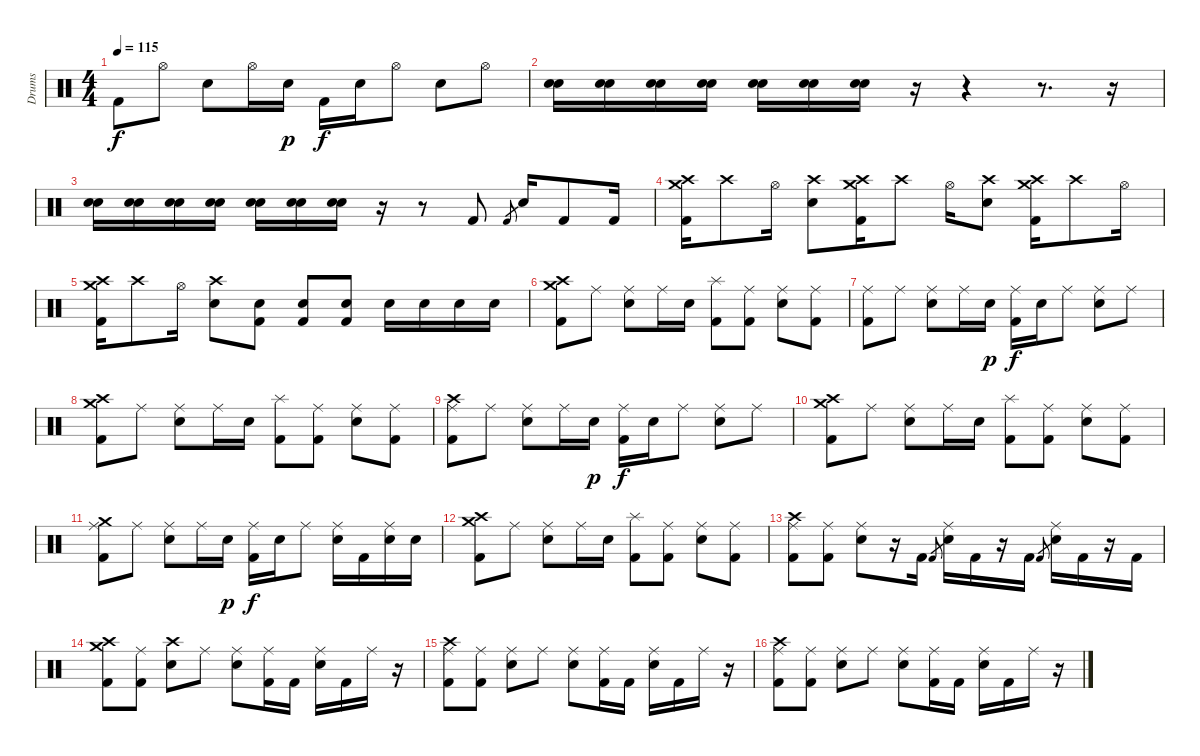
\track ("Drums" "Drums") {instrument percussion}
\staff {score}
\articulation defaults
\ts (4 4)
\tempo 115
\clef neutral
\ks c "Kick (hit) 2".8{dy f} "Hi-Hat (open)".8 "Snare (hit) 2".8 "Hi-Hat (open)".16 "Snare (hit) 2".16{dy p} "Kick (hit) 2".16{dy f} "Snare (hit) 2".16 "Hi-Hat (open)".8 "Snare (hit) 2".8 "Hi-Hat (open)".8
|
("Snare (hit) 2" "Electric Snare (hit)").16 ("Snare (hit) 2" "Electric Snare (hit)").16 ("Snare (hit) 2" "Electric Snare (hit)").16 ("Snare (hit) 2" "Electric Snare (hit)").16 ("Snare (hit) 2" "Electric Snare (hit)").16 ("Snare (hit) 2" "Electric Snare (hit)").16 ("Snare (hit) 2" "Electric Snare (hit)").16 r.16 r.4 r.8{d} r.16 |
("Snare (hit) 2" "Electric Snare (hit)").16 ("Snare (hit) 2" "Electric Snare (hit)").16 ("Snare (hit) 2" "Electric Snare (hit)").16 ("Snare (hit) 2" "Electric Snare (hit)").16 ("Snare (hit) 2" "Electric Snare (hit)").16 ("Snare (hit) 2" "Electric Snare (hit)").16 ("Snare (hit) 2" "Electric Snare (hit)").16 r.16 r.8 "Kick (hit) 2".8 "Kick (hit) 2".8{gr} "Snare (hit) 2".16 "Kick (hit) 2".8 "Kick (hit) 2".16 |
("Crash medium (hit)" "Kick (hit) 2" "Crash high (hit)").16 "Crash high (hit)".8 "Hi-Hat (open)".16 ("Crash high (hit)" "Snare (hit) 2").8 ("Crash medium (hit)" "Kick (hit) 2" "Crash high (hit)").16 "Crash high (hit)".8 "Hi-Hat (open)".16 ("Crash high (hit)" "Snare (hit) 2").8 ("Crash medium (hit)" "Kick (hit) 2" "Crash high (hit)").16 "Crash high (hit)".8 "Hi-Hat (open)".16 |
("Crash medium (hit)" "Kick (hit) 2" "Crash high (hit)").16 "Crash high (hit)".8 "Hi-Hat (open)".16 ("Crash high (hit)" "Snare (hit) 2").8 ("Snare (hit) 2" "Kick (hit) 2").8 ("Snare (hit) 2" "Kick (hit) 2").8 ("Snare (hit) 2" "Kick (hit) 2").8 "Snare (hit) 2".16 "Snare (hit) 2".16 "Snare (hit) 2".16 "Snare (hit) 2".16 |
("Crash medium (hit)" "Kick (hit) 2" "Crash high (hit)").8 "Ride (middle)".8 ("Ride (middle)" "Snare (hit) 2").8 "Ride (middle)".16 "Snare (hit) 2".16 ("Splash (hit)" "Kick (hit) 2").8 ("Ride (middle)" "Kick (hit) 2").8 ("Ride (middle)" "Snare (hit) 2").8 ("Ride (middle)" "Kick (hit) 2").8 |
("Ride (middle)" "Kick (hit) 2").8 "Ride (middle)".8 ("Ride (middle)" "Snare (hit) 2").8 "Ride (middle)".16 "Snare (hit) 2".16{dy p} ("Ride (middle)" "Kick (hit) 2").16{dy f} "Snare (hit) 2".16 "Ride (middle)".8 ("Ride (middle)" "Snare (hit) 2").8 "Ride (middle)".8 |
("Crash medium (hit)" "Kick (hit) 2" "Crash high (hit)").8 "Ride (middle)".8 ("Ride (middle)" "Snare (hit) 2").8 "Ride (middle)".16 "Snare (hit) 2".16 ("Splash (hit)" "Kick (hit) 2").8 ("Ride (middle)" "Kick (hit) 2").8 ("Ride (middle)" "Snare (hit) 2").8 ("Ride (middle)" "Kick (hit) 2").8 |
("Ride (middle)" "Kick (hit) 2" "Crash high (hit)").8 "Ride (middle)".8 ("Ride (middle)" "Snare (hit) 2").8 "Ride (middle)".16 "Snare (hit) 2".16{dy p} ("Ride (middle)" "Kick (hit) 2").16{dy f} "Snare (hit) 2".16 "Ride (middle)".8 ("Ride (middle)" "Snare (hit) 2").8 "Ride (middle)".8 |
("Crash medium (hit)" "Kick (hit) 2" "Crash high (hit)").8 "Ride (middle)".8 ("Ride (middle)" "Snare (hit) 2").8 "Ride (middle)".16 "Snare (hit) 2".16 ("Splash (hit)" "Kick (hit) 2").8 ("Ride (middle)" "Kick (hit) 2").8 ("Ride (middle)" "Snare (hit) 2").8 ("Ride (middle)" "Kick (hit) 2").8 |
("Ride (middle)" "Kick (hit) 2" "Crash medium (hit)").8 "Ride (middle)".8 ("Ride (middle)" "Snare (hit) 2").8 "Ride (middle)".16 "Snare (hit) 2".16{dy p} ("Ride (middle)" "Kick (hit) 2").16{dy f} "Snare (hit) 2".16 "Ride (middle)".8 ("Ride (middle)" "Snare (hit) 2").16 "Kick (hit) 2".16 ("Ride (middle)" "Snare (hit) 2").16 "Snare (hit) 2".16 |
("Crash medium (hit)" "Kick (hit) 2" "Crash high (hit)").8 "Ride (middle)".8 ("Ride (middle)" "Snare (hit) 2").8 "Ride (middle)".16 "Snare (hit) 2".16 ("Splash (hit)" "Kick (hit) 2").8 ("Ride (middle)" "Kick (hit) 2").8 ("Ride (middle)" "Snare (hit) 2").8 ("Ride (middle)" "Kick (hit) 2").8 |
("Ride (middle)" "Kick (hit) 2" "Crash high (hit)").8 ("Ride (middle)" "Kick (hit) 2").8 ("Ride (middle)" "Snare (hit) 2").8 r.16 "Kick (hit) 2".16 "Kick (hit) 2".8{gr} ("Ride (middle)" "Electric Snare (hit)").16 "Kick (hit) 2".16 r.16 "Kick (hit) 2".16 "Kick (hit) 2".8{gr} ("Ride (middle)" "Snare (hit) 2").16 "Kick (hit) 2".16 r.16 "Kick (hit) 2".16 |
("Crash medium (hit)" "Kick (hit) 2" "Crash high (hit)").8 ("Ride (middle)" "Kick (hit) 2").8 ("Crash high (hit)" "Electric Snare (hit)").8 "Ride (middle)".8 ("Ride (middle)" "Snare (hit) 2").8 ("Ride (middle)" "Kick (hit) 2").16 "Kick (hit) 2".16 ("Ride (middle)" "Snare (hit) 2").16 "Kick (hit) 2".16 "Ride (middle)".16 r.16 |
("Ride (middle)" "Kick (hit) 2" "Crash high (hit)").8 ("Ride (middle)" "Kick (hit) 2").8 ("Ride (middle)" "Electric Snare (hit)").8 "Ride (middle)".8 ("Ride (middle)" "Snare (hit) 2").8 ("Ride (middle)" "Kick (hit) 2").16 "Kick (hit) 2".16 ("Ride (middle)" "Snare (hit) 2").16 "Kick (hit) 2".16 "Ride (middle)".16 r.16 |
("Ride (middle)" "Kick (hit) 2" "Crash high (hit)").8 ("Ride (middle)" "Kick (hit) 2").8 ("Ride (middle)" "Electric Snare (hit)").8 "Ride (middle)".8 ("Ride (middle)" "Snare (hit) 2").8 ("Ride (middle)" "Kick (hit) 2").16 "Kick (hit) 2".16 ("Ride (middle)" "Snare (hit) 2").16 "Kick (hit) 2".16 "Ride (middle)".16 r.16
